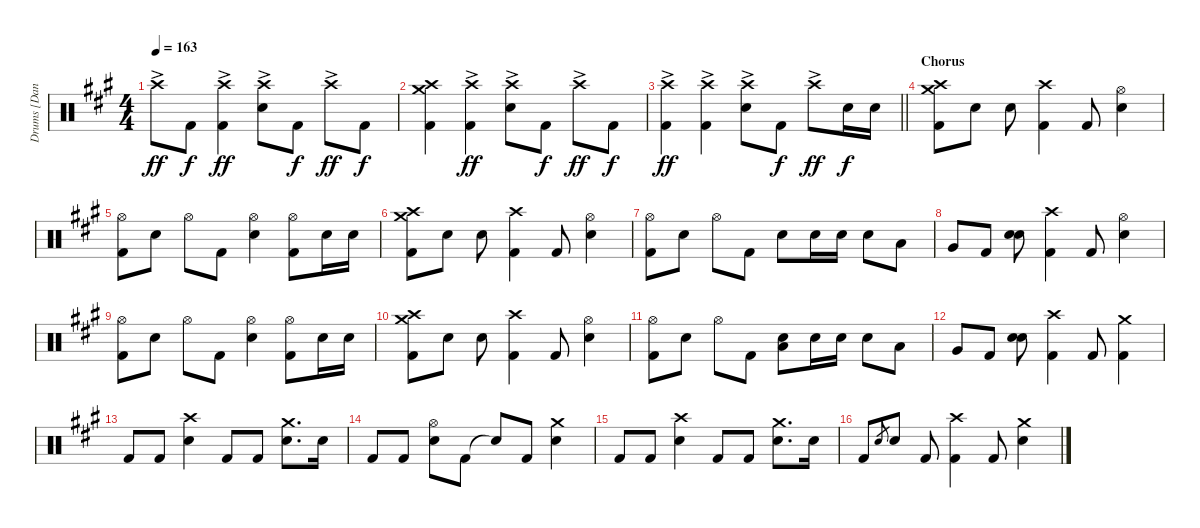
\track ("Drums [Daniel Davison]" "Drums [Dan") {instrument percussion}
\staff {score}
\articulation defaults
\ts (4 4)
\tempo 163
\clef neutral
\ks a "Crash high (hit)"{ac}.8{dy ff} "Kick (hit) 2".8{dy f}
("Crash high (hit)"{ac} "Kick (hit) 2").4{dy ff} ("Crash high (hit)"{ac} "Electric Snare (hit)").8 "Kick (hit) 2".8{dy f} "Crash high (hit)"{ac}.8{dy ff} "Kick (hit) 2".8{dy f} |
("Crash medium (hit)" "Crash high (hit)" "Kick (hit) 2").4 ("Crash high (hit)"{ac} "Kick (hit) 2").4{dy ff} ("Crash high (hit)"{ac} "Electric Snare (hit)").8 "Kick (hit) 2".8{dy f} "Crash high (hit)"{ac}.8{dy ff} "Kick (hit) 2".8{dy f} |
\barLineRight lightlight
("Crash high (hit)"{ac} "Kick (hit) 2").4{dy ff} ("Crash high (hit)"{ac} "Kick (hit) 2").4 ("Crash high (hit)"{ac} "Electric Snare (hit)").8 "Kick (hit) 2".8{dy f} "Crash high (hit)"{ac}.8{dy ff} "Electric Snare (hit)".16{dy f} "Electric Snare (hit)".16 |
\section ("" "Chorus")
("Crash medium (hit)" "Crash high (hit)" "Kick (hit) 2").8 "Electric Snare (hit)".8 "Electric Snare (hit)".8 ("Crash high (hit)" "Kick (hit) 2").4 "Kick (hit) 2".8 ("Hi-Hat (open)" "Electric Snare (hit)").4 |
("Hi-Hat (open)" "Kick (hit) 2").8 "Electric Snare (hit)".8 "Hi-Hat (open)".8 "Kick (hit) 2".8 ("Hi-Hat (open)" "Electric Snare (hit)").4 ("Hi-Hat (open)" "Kick (hit) 2").8 "Electric Snare (hit)".16 "Electric Snare (hit)".16 |
("Crash medium (hit)" "Crash high (hit)" "Kick (hit) 2").8 "Electric Snare (hit)".8 "Electric Snare (hit)".8 ("Crash high (hit)" "Kick (hit) 2").4 "Kick (hit) 2".8 ("Hi-Hat (open)" "Electric Snare (hit)").4 |
("Hi-Hat (open)" "Kick (hit) 2").8 "Electric Snare (hit)".8 "Hi-Hat (open)".8 "Kick (hit) 2".8 "Electric Snare (hit)".8 "Electric Snare (hit)".16 "Electric Snare (hit)".16 "Electric Snare (hit)".8 "Low Tom (hit)".8 |
"Very Low Tom (hit)".8 "Kick (hit) 2".8 ("Electric Snare (hit)" "Electric Snare (hit)").8{bu 60} ("Crash high (hit)" "Kick (hit) 2").4 "Kick (hit) 2".8 ("Hi-Hat (open)" "Electric Snare (hit)").4 |
("Hi-Hat (open)" "Kick (hit) 2").8 "Electric Snare (hit)".8 "Hi-Hat (open)".8 "Kick (hit) 2".8 ("Hi-Hat (open)" "Electric Snare (hit)").4 ("Hi-Hat (open)" "Kick (hit) 2").8 "Electric Snare (hit)".16 "Electric Snare (hit)".16 |
("Crash medium (hit)" "Crash high (hit)" "Kick (hit) 2").8 "Electric Snare (hit)".8 "Electric Snare (hit)".8 ("Crash high (hit)" "Kick (hit) 2").4 "Kick (hit) 2".8 ("Hi-Hat (open)" "Electric Snare (hit)").4 |
("Hi-Hat (open)" "Kick (hit) 2").8 "Electric Snare (hit)".8 "Hi-Hat (open)".8 "Kick (hit) 2".8 ("Low Tom (hit)" "Electric Snare (hit)").8 "Electric Snare (hit)".16 "Electric Snare (hit)".16 "Electric Snare (hit)".8 "Low Tom (hit)".8 |
"Very Low Tom (hit)".8 "Kick (hit) 2".8 ("Electric Snare (hit)" "Electric Snare (hit)").8{bu 60} ("Crash high (hit)" "Kick (hit) 2").4 "Kick (hit) 2".8 ("Crash medium (hit)" "Kick (hit) 2").4 |
"Kick (hit) 2".8 "Kick (hit) 2".8 ("Crash high (hit)" "Electric Snare (hit)").4 "Kick (hit) 2".8 "Kick (hit) 2".8 ("Crash medium (hit)" "Electric Snare (hit)").8{d} "Electric Snare (hit)".16 |
"Kick (hit) 2".8 "Kick (hit) 2".8 ("Hi-Hat (open)" "Electric Snare (hit)").8 "Kick (hit) 2".8 "Snare (hit)"{t}.8 "Kick (hit) 2".8 ("Crash medium (hit)" "Electric Snare (hit)").4 |
"Kick (hit) 2".8 "Kick (hit) 2".8 ("Crash high (hit)" "Electric Snare (hit)").4 "Kick (hit) 2".8 "Kick (hit) 2".8 ("Crash medium (hit)" "Electric Snare (hit)").8{d} "Electric Snare (hit)".16 |
"Kick (hit) 2".8 "Electric Snare (hit)".8{gr} "Electric Snare (hit)".8 "Kick (hit) 2".8 ("Crash high (hit)" "Kick (hit) 2").4 "Kick (hit) 2".8 ("Crash medium (hit)" "Electric Snare (hit)").4
